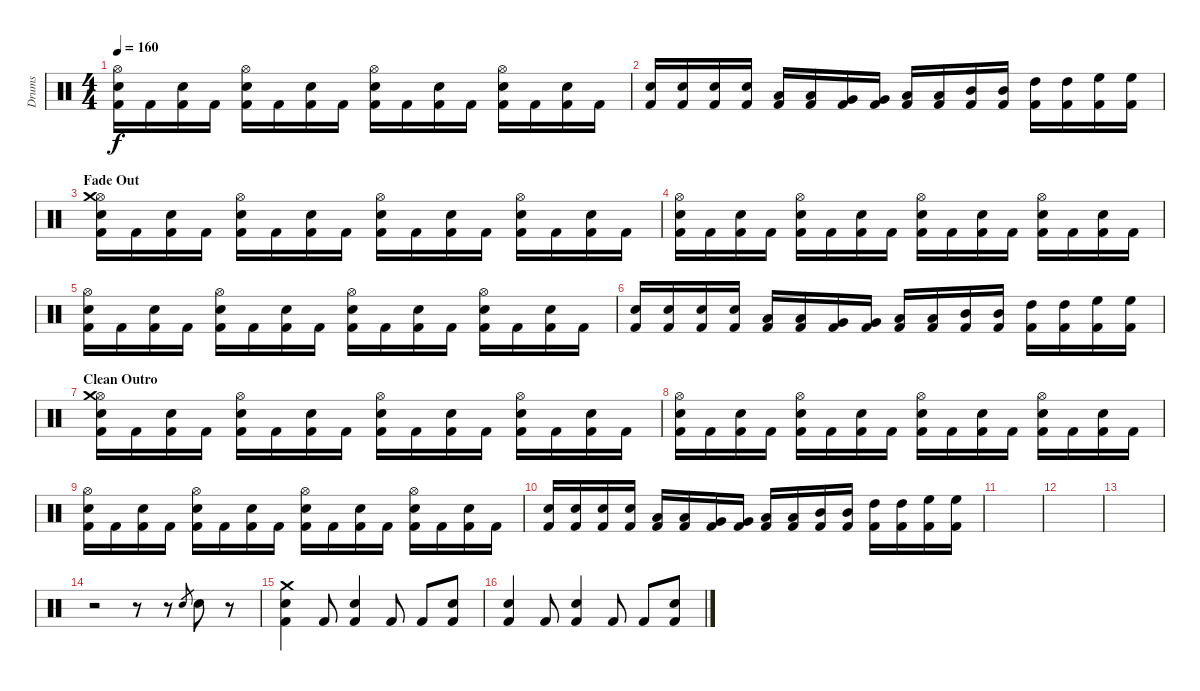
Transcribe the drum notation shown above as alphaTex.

\track ("Drums" "Drums") {instrument percussion}
\staff {score}
\articulation defaults
\ts (4 4)
\tempo 160
\clef neutral
\ks c
("Kick (hit) 2" "Snare (hit) 2" "Hi-Hat (open)").16{dy f} "Kick (hit) 2".16 ("Kick (hit) 2" "Snare (hit) 2").16 "Kick (hit) 2".16 ("Kick (hit) 2" "Snare (hit) 2" "Hi-Hat (open)").16 "Kick (hit) 2".16 ("Kick (hit) 2" "Snare (hit) 2").16 "Kick (hit) 2".16 ("Kick (hit) 2" "Snare (hit) 2" "Hi-Hat (open)").16 "Kick (hit) 2".16 ("Kick (hit) 2" "Snare (hit) 2").16 "Kick (hit) 2".16 ("Kick (hit) 2" "Snare (hit) 2" "Hi-Hat (open)").16 "Kick (hit) 2".16 ("Kick (hit) 2" "Snare (hit) 2").16 "Kick (hit) 2".16 |
("Kick (hit) 2" "Snare (hit) 2").16 ("Kick (hit) 2" "Snare (hit) 2").16 ("Kick (hit) 2" "Snare (hit) 2").16 ("Kick (hit) 2" "Snare (hit) 2").16 ("Kick (hit) 2" "Low Floor Tom (hit)").16 ("Kick (hit) 2" "Low Floor Tom (hit)").16 ("Kick (hit) 2" "Very Low Tom (hit)").16 ("Kick (hit) 2" "Very Low Tom (hit)").16 ("Kick (hit) 2" "Low Tom (hit)").16 ("Kick (hit) 2" "Low Tom (hit)").16 ("Kick (hit) 2" "Mid Tom (hit)").16 ("Kick (hit) 2" "Mid Tom (hit)").16 ("Kick (hit) 2" "High Tom (hit)").16 ("Kick (hit) 2" "High Tom (hit)").16 ("Kick (hit) 2" "High Floor Tom (hit)").16 ("Kick (hit) 2" "High Floor Tom (hit)").16 |
\section ("" "Fade Out")
("Kick (hit) 2" "Snare (hit) 2" "Hi-Hat (open)" "Crash medium (hit)").16{volume 10} "Kick (hit) 2".16 ("Kick (hit) 2" "Snare (hit) 2").16 "Kick (hit) 2".16 ("Kick (hit) 2" "Snare (hit) 2" "Hi-Hat (open)").16 "Kick (hit) 2".16 ("Kick (hit) 2" "Snare (hit) 2").16 "Kick (hit) 2".16 ("Kick (hit) 2" "Snare (hit) 2" "Hi-Hat (open)").16 "Kick (hit) 2".16 ("Kick (hit) 2" "Snare (hit) 2").16 "Kick (hit) 2".16 ("Kick (hit) 2" "Snare (hit) 2" "Hi-Hat (open)").16 "Kick (hit) 2".16 ("Kick (hit) 2" "Snare (hit) 2").16 "Kick (hit) 2".16 |
("Kick (hit) 2" "Snare (hit) 2" "Hi-Hat (open)").16 "Kick (hit) 2".16 ("Kick (hit) 2" "Snare (hit) 2").16 "Kick (hit) 2".16 ("Kick (hit) 2" "Snare (hit) 2" "Hi-Hat (open)").16 "Kick (hit) 2".16 ("Kick (hit) 2" "Snare (hit) 2").16 "Kick (hit) 2".16 ("Kick (hit) 2" "Snare (hit) 2" "Hi-Hat (open)").16 "Kick (hit) 2".16 ("Kick (hit) 2" "Snare (hit) 2").16 "Kick (hit) 2".16 ("Kick (hit) 2" "Snare (hit) 2" "Hi-Hat (open)").16 "Kick (hit) 2".16 ("Kick (hit) 2" "Snare (hit) 2").16 "Kick (hit) 2".16 |
("Kick (hit) 2" "Snare (hit) 2" "Hi-Hat (open)").16{volume 6} "Kick (hit) 2".16 ("Kick (hit) 2" "Snare (hit) 2").16 "Kick (hit) 2".16 ("Kick (hit) 2" "Snare (hit) 2" "Hi-Hat (open)").16 "Kick (hit) 2".16 ("Kick (hit) 2" "Snare (hit) 2").16 "Kick (hit) 2".16 ("Kick (hit) 2" "Snare (hit) 2" "Hi-Hat (open)").16 "Kick (hit) 2".16 ("Kick (hit) 2" "Snare (hit) 2").16 "Kick (hit) 2".16 ("Kick (hit) 2" "Snare (hit) 2" "Hi-Hat (open)").16 "Kick (hit) 2".16 ("Kick (hit) 2" "Snare (hit) 2").16 "Kick (hit) 2".16 |
("Kick (hit) 2" "Snare (hit) 2").16 ("Kick (hit) 2" "Snare (hit) 2").16 ("Kick (hit) 2" "Snare (hit) 2").16 ("Kick (hit) 2" "Snare (hit) 2").16 ("Kick (hit) 2" "Low Floor Tom (hit)").16 ("Kick (hit) 2" "Low Floor Tom (hit)").16 ("Kick (hit) 2" "Very Low Tom (hit)").16 ("Kick (hit) 2" "Very Low Tom (hit)").16 ("Kick (hit) 2" "Low Tom (hit)").16 ("Kick (hit) 2" "Low Tom (hit)").16 ("Kick (hit) 2" "Mid Tom (hit)").16 ("Kick (hit) 2" "Mid Tom (hit)").16 ("Kick (hit) 2" "High Tom (hit)").16 ("Kick (hit) 2" "High Tom (hit)").16 ("Kick (hit) 2" "High Floor Tom (hit)").16 ("Kick (hit) 2" "High Floor Tom (hit)").16 |
\section ("" "Clean Outro")
("Kick (hit) 2" "Snare (hit) 2" "Hi-Hat (open)" "Crash medium (hit)").16{volume 3} "Kick (hit) 2".16 ("Kick (hit) 2" "Snare (hit) 2").16 "Kick (hit) 2".16 ("Kick (hit) 2" "Snare (hit) 2" "Hi-Hat (open)").16 "Kick (hit) 2".16 ("Kick (hit) 2" "Snare (hit) 2").16 "Kick (hit) 2".16 ("Kick (hit) 2" "Snare (hit) 2" "Hi-Hat (open)").16 "Kick (hit) 2".16 ("Kick (hit) 2" "Snare (hit) 2").16 "Kick (hit) 2".16 ("Kick (hit) 2" "Snare (hit) 2" "Hi-Hat (open)").16 "Kick (hit) 2".16 ("Kick (hit) 2" "Snare (hit) 2").16 "Kick (hit) 2".16 |
("Kick (hit) 2" "Snare (hit) 2" "Hi-Hat (open)").16 "Kick (hit) 2".16 ("Kick (hit) 2" "Snare (hit) 2").16 "Kick (hit) 2".16 ("Kick (hit) 2" "Snare (hit) 2" "Hi-Hat (open)").16 "Kick (hit) 2".16 ("Kick (hit) 2" "Snare (hit) 2").16 "Kick (hit) 2".16 ("Kick (hit) 2" "Snare (hit) 2" "Hi-Hat (open)").16 "Kick (hit) 2".16 ("Kick (hit) 2" "Snare (hit) 2").16 "Kick (hit) 2".16 ("Kick (hit) 2" "Snare (hit) 2" "Hi-Hat (open)").16 "Kick (hit) 2".16 ("Kick (hit) 2" "Snare (hit) 2").16 "Kick (hit) 2".16 |
("Kick (hit) 2" "Snare (hit) 2" "Hi-Hat (open)").16{volume 0} "Kick (hit) 2".16 ("Kick (hit) 2" "Snare (hit) 2").16 "Kick (hit) 2".16 ("Kick (hit) 2" "Snare (hit) 2" "Hi-Hat (open)").16 "Kick (hit) 2".16 ("Kick (hit) 2" "Snare (hit) 2").16 "Kick (hit) 2".16 ("Kick (hit) 2" "Snare (hit) 2" "Hi-Hat (open)").16 "Kick (hit) 2".16 ("Kick (hit) 2" "Snare (hit) 2").16 "Kick (hit) 2".16 ("Kick (hit) 2" "Snare (hit) 2" "Hi-Hat (open)").16 "Kick (hit) 2".16 ("Kick (hit) 2" "Snare (hit) 2").16 "Kick (hit) 2".16 |
("Kick (hit) 2" "Snare (hit) 2").16 ("Kick (hit) 2" "Snare (hit) 2").16 ("Kick (hit) 2" "Snare (hit) 2").16 ("Kick (hit) 2" "Snare (hit) 2").16 ("Kick (hit) 2" "Low Floor Tom (hit)").16 ("Kick (hit) 2" "Low Floor Tom (hit)").16 ("Kick (hit) 2" "Very Low Tom (hit)").16 ("Kick (hit) 2" "Very Low Tom (hit)").16 ("Kick (hit) 2" "Low Tom (hit)").16 ("Kick (hit) 2" "Low Tom (hit)").16 ("Kick (hit) 2" "Mid Tom (hit)").16 ("Kick (hit) 2" "Mid Tom (hit)").16 ("Kick (hit) 2" "High Tom (hit)").16 ("Kick (hit) 2" "High Tom (hit)").16 ("Kick (hit) 2" "High Floor Tom (hit)").16 ("Kick (hit) 2" "High Floor Tom (hit)").16 |
|
|
|
r.2 r.8 r.8 "Snare (hit) 2".8{gr} "Snare (hit) 2".8 r.8 |
("Kick (hit) 2" "Snare (hit) 2" "Crash medium (hit)").4 "Kick (hit) 2".8 ("Kick (hit) 2" "Snare (hit) 2").4 "Kick (hit) 2".8 "Kick (hit) 2".8 ("Kick (hit) 2" "Snare (hit) 2").8 |
("Kick (hit) 2" "Snare (hit) 2").4 "Kick (hit) 2".8 ("Kick (hit) 2" "Snare (hit) 2").4 "Kick (hit) 2".8 "Kick (hit) 2".8 ("Kick (hit) 2" "Snare (hit) 2").8
